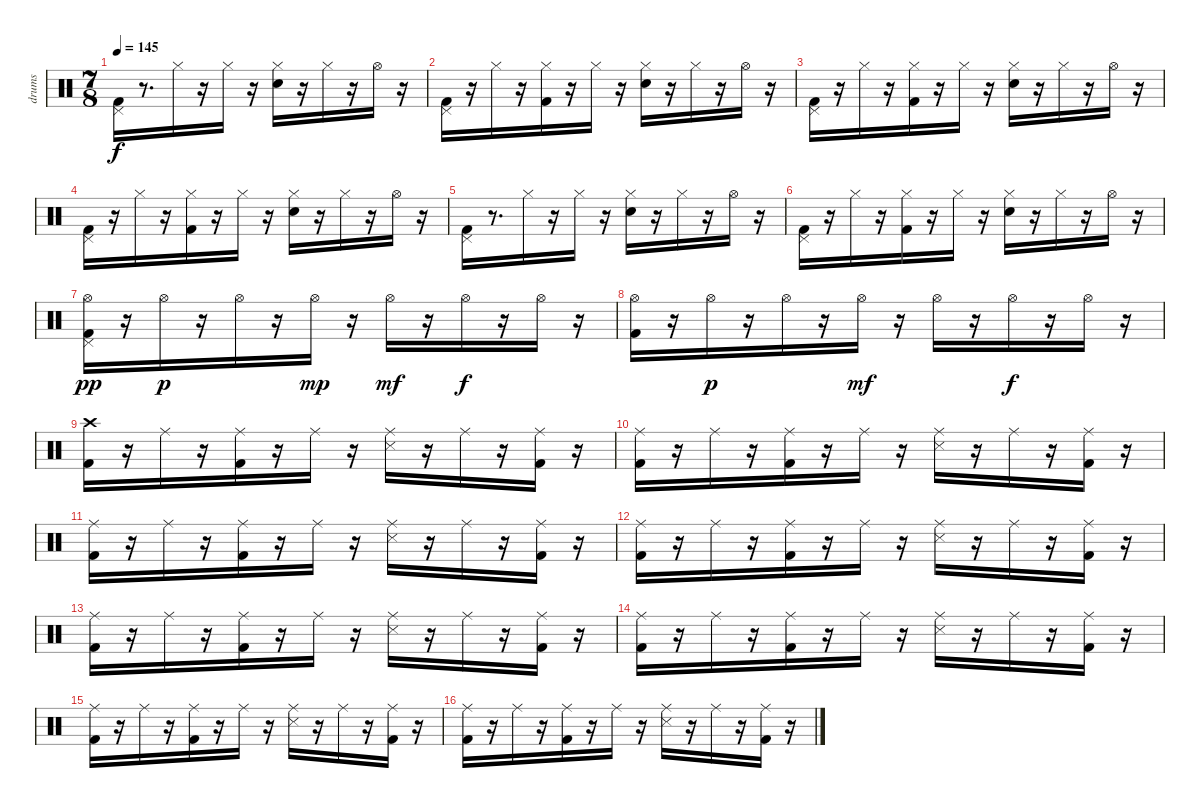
\track ("drums" "drums") {instrument percussion}
\staff {score}
\articulation defaults
\ts (7 8)
\tempo 145
\clef neutral
\ks c
("Kick (hit) 2" "Pedal Hi-Hat (hit)").16{dy f} r.8{d} "Hi-Hat (closed)".16 r.16 "Hi-Hat (closed)".16 r.16 ("Snare (hit) 2" "Hi-Hat (closed)").16 r.16 "Hi-Hat (closed)".16 r.16 "Hi-Hat (open)".16 r.16 |
("Kick (hit) 2" "Pedal Hi-Hat (hit)").16 r.16 "Hi-Hat (closed)".16 r.16 ("Kick (hit) 2" "Hi-Hat (closed)").16 r.16 "Hi-Hat (closed)".16 r.16 ("Snare (hit) 2" "Hi-Hat (closed)").16 r.16 "Hi-Hat (closed)".16 r.16 "Hi-Hat (open)".16 r.16 |
("Kick (hit) 2" "Pedal Hi-Hat (hit)").16 r.16 "Hi-Hat (closed)".16 r.16 ("Kick (hit) 2" "Hi-Hat (closed)").16 r.16 "Hi-Hat (closed)".16 r.16 ("Snare (hit) 2" "Hi-Hat (closed)").16 r.16 "Hi-Hat (closed)".16 r.16 "Hi-Hat (open)".16 r.16 |
("Kick (hit) 2" "Pedal Hi-Hat (hit)").16 r.16 "Hi-Hat (closed)".16 r.16 ("Kick (hit) 2" "Hi-Hat (closed)").16 r.16 "Hi-Hat (closed)".16 r.16 ("Snare (hit) 2" "Hi-Hat (closed)").16 r.16 "Hi-Hat (closed)".16 r.16 "Hi-Hat (open)".16 r.16 |
("Kick (hit) 2" "Pedal Hi-Hat (hit)").16 r.8{d} "Hi-Hat (closed)".16 r.16 "Hi-Hat (closed)".16 r.16 ("Snare (hit) 2" "Hi-Hat (closed)").16 r.16 "Hi-Hat (closed)".16 r.16 "Hi-Hat (open)".16 r.16 |
("Kick (hit) 2" "Pedal Hi-Hat (hit)").16 r.16 "Hi-Hat (closed)".16 r.16 ("Kick (hit) 2" "Hi-Hat (closed)").16 r.16 "Hi-Hat (closed)".16 r.16 ("Snare (hit) 2" "Hi-Hat (closed)").16 r.16 "Hi-Hat (closed)".16 r.16 "Hi-Hat (open)".16 r.16 |
("Kick (hit) 2" "Pedal Hi-Hat (hit)" "Hi-Hat (open)").16{dy pp} r.16 "Hi-Hat (open)".16{dy p} r.16 "Hi-Hat (open)".16 r.16 "Hi-Hat (open)".16{dy mp} r.16 "Hi-Hat (open)".16{dy mf} r.16 "Hi-Hat (open)".16{dy f} r.16 "Hi-Hat (open)".16 r.16 |
("Kick (hit) 2" "Hi-Hat (open)").16 r.16 "Hi-Hat (open)".16{dy p} r.16 "Hi-Hat (open)".16 r.16 "Hi-Hat (open)".16{dy mf} r.16 "Hi-Hat (open)".16 r.16 "Hi-Hat (open)".16{dy f} r.16 "Hi-Hat (open)".16 r.16 |
("Kick (hit) 2" "Crash high (hit)").16 r.16 "Ride (middle)".16 r.16 ("Kick (hit) 2" "Ride (middle)").16 r.16 "Ride (middle)".16 r.16 ("Snare (side stick) 3" "Ride (middle)").16 r.16 "Ride (middle)".16 r.16 ("Kick (hit) 2" "Ride (middle)").16 r.16 |
("Kick (hit) 2" "Ride (middle)").16 r.16 "Ride (middle)".16 r.16 ("Kick (hit) 2" "Ride (middle)").16 r.16 "Ride (middle)".16 r.16 ("Snare (side stick) 3" "Ride (middle)").16 r.16 "Ride (middle)".16 r.16 ("Kick (hit) 2" "Ride (middle)").16 r.16 |
("Kick (hit) 2" "Ride (middle)").16 r.16 "Ride (middle)".16 r.16 ("Kick (hit) 2" "Ride (middle)").16 r.16 "Ride (middle)".16 r.16 ("Snare (side stick) 3" "Ride (middle)").16 r.16 "Ride (middle)".16 r.16 ("Kick (hit) 2" "Ride (middle)").16 r.16 |
("Kick (hit) 2" "Ride (middle)").16 r.16 "Ride (middle)".16 r.16 ("Kick (hit) 2" "Ride (middle)").16 r.16 "Ride (middle)".16 r.16 ("Snare (side stick) 3" "Ride (middle)").16 r.16 "Ride (middle)".16 r.16 ("Kick (hit) 2" "Ride (middle)").16 r.16 |
("Kick (hit) 2" "Ride (middle)").16 r.16 "Ride (middle)".16 r.16 ("Kick (hit) 2" "Ride (middle)").16 r.16 "Ride (middle)".16 r.16 ("Snare (side stick) 3" "Ride (middle)").16 r.16 "Ride (middle)".16 r.16 ("Kick (hit) 2" "Ride (middle)").16 r.16 |
("Kick (hit) 2" "Ride (middle)").16 r.16 "Ride (middle)".16 r.16 ("Kick (hit) 2" "Ride (middle)").16 r.16 "Ride (middle)".16 r.16 ("Snare (side stick) 3" "Ride (middle)").16 r.16 "Ride (middle)".16 r.16 ("Kick (hit) 2" "Ride (middle)").16 r.16 |
("Kick (hit) 2" "Ride (middle)").16 r.16 "Ride (middle)".16 r.16 ("Kick (hit) 2" "Ride (middle)").16 r.16 "Ride (middle)".16 r.16 ("Snare (side stick) 3" "Ride (middle)").16 r.16 "Ride (middle)".16 r.16 ("Kick (hit) 2" "Ride (middle)").16 r.16 |
("Kick (hit) 2" "Ride (middle)").16 r.16 "Ride (middle)".16 r.16 ("Kick (hit) 2" "Ride (middle)").16 r.16 "Ride (middle)".16 r.16 ("Snare (side stick) 3" "Ride (middle)").16 r.16 "Ride (middle)".16 r.16 ("Kick (hit) 2" "Ride (middle)").16 r.16
